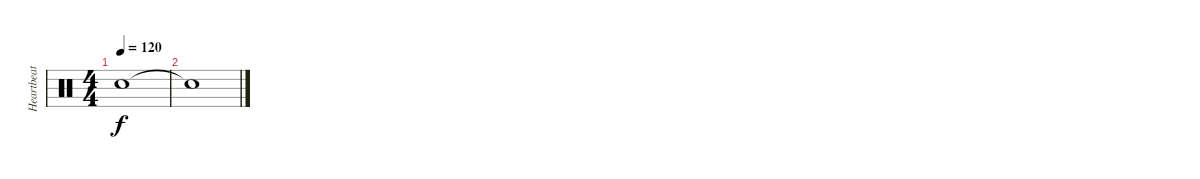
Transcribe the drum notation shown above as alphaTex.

\track ("Heartbeat" "Heartbeat") {instrument percussion}
\staff {score}
\articulation defaults
\ts (4 4)
\tempo 120
\clef neutral
\ks c "Snare (hit)"{t}.1{dy f}
|
"Snare (hit)"{t}.1
